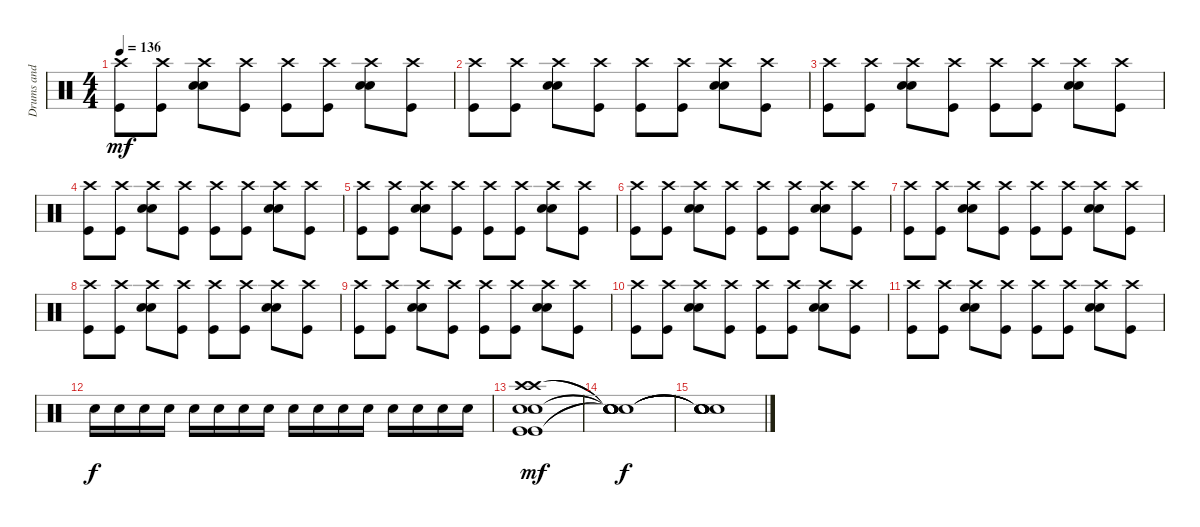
\track ("Drums and Percussions" "Drums and ") {instrument percussion}
\staff {score}
\articulation defaults
\ts (4 4)
\tempo 136
\clef neutral
\ks c
("Crash high (hit)" "Kick (hit)").8{dy mf} ("Crash high (hit)" "Kick (hit)").8 ("Crash high (hit)" "Electric Snare (hit)" "Electric Snare (hit)").8 ("Crash high (hit)" "Kick (hit)").8 ("Crash high (hit)" "Kick (hit)").8 ("Crash high (hit)" "Kick (hit)").8 ("Crash high (hit)" "Electric Snare (hit)" "Electric Snare (hit)").8 ("Crash high (hit)" "Kick (hit)").8 |
("Crash high (hit)" "Kick (hit)").8 ("Crash high (hit)" "Kick (hit)").8 ("Crash high (hit)" "Electric Snare (hit)" "Electric Snare (hit)").8 ("Crash high (hit)" "Kick (hit)").8 ("Crash high (hit)" "Kick (hit)").8 ("Crash high (hit)" "Kick (hit)").8 ("Crash high (hit)" "Electric Snare (hit)" "Electric Snare (hit)").8 ("Crash high (hit)" "Kick (hit)").8 |
("Crash high (hit)" "Kick (hit)").8 ("Crash high (hit)" "Kick (hit)").8 ("Crash high (hit)" "Electric Snare (hit)" "Electric Snare (hit)").8 ("Crash high (hit)" "Kick (hit)").8 ("Crash high (hit)" "Kick (hit)").8 ("Crash high (hit)" "Kick (hit)").8 ("Crash high (hit)" "Electric Snare (hit)" "Electric Snare (hit)").8 ("Crash high (hit)" "Kick (hit)").8 |
("Crash high (hit)" "Kick (hit)").8 ("Crash high (hit)" "Kick (hit)").8 ("Crash high (hit)" "Electric Snare (hit)" "Electric Snare (hit)").8 ("Crash high (hit)" "Kick (hit)").8 ("Crash high (hit)" "Kick (hit)").8 ("Crash high (hit)" "Kick (hit)").8 ("Crash high (hit)" "Electric Snare (hit)" "Electric Snare (hit)").8 ("Crash high (hit)" "Kick (hit)").8 |
("Crash high (hit)" "Kick (hit)").8 ("Crash high (hit)" "Kick (hit)").8 ("Crash high (hit)" "Electric Snare (hit)" "Electric Snare (hit)").8 ("Crash high (hit)" "Kick (hit)").8 ("Crash high (hit)" "Kick (hit)").8 ("Crash high (hit)" "Kick (hit)").8 ("Crash high (hit)" "Electric Snare (hit)" "Electric Snare (hit)").8 ("Crash high (hit)" "Kick (hit)").8 |
("Crash high (hit)" "Kick (hit)").8 ("Crash high (hit)" "Kick (hit)").8 ("Crash high (hit)" "Electric Snare (hit)" "Electric Snare (hit)").8 ("Crash high (hit)" "Kick (hit)").8 ("Crash high (hit)" "Kick (hit)").8 ("Crash high (hit)" "Kick (hit)").8 ("Crash high (hit)" "Electric Snare (hit)" "Electric Snare (hit)").8 ("Crash high (hit)" "Kick (hit)").8 |
("Crash high (hit)" "Kick (hit)").8 ("Crash high (hit)" "Kick (hit)").8 ("Crash high (hit)" "Electric Snare (hit)" "Electric Snare (hit)").8 ("Crash high (hit)" "Kick (hit)").8 ("Crash high (hit)" "Kick (hit)").8 ("Crash high (hit)" "Kick (hit)").8 ("Crash high (hit)" "Electric Snare (hit)" "Electric Snare (hit)").8 ("Crash high (hit)" "Kick (hit)").8 |
("Crash high (hit)" "Kick (hit)").8 ("Crash high (hit)" "Kick (hit)").8 ("Crash high (hit)" "Electric Snare (hit)" "Electric Snare (hit)").8 ("Crash high (hit)" "Kick (hit)").8 ("Crash high (hit)" "Kick (hit)").8 ("Crash high (hit)" "Kick (hit)").8 ("Crash high (hit)" "Electric Snare (hit)" "Electric Snare (hit)").8 ("Crash high (hit)" "Kick (hit)").8 |
("Crash high (hit)" "Kick (hit)").8 ("Crash high (hit)" "Kick (hit)").8 ("Crash high (hit)" "Electric Snare (hit)" "Electric Snare (hit)").8 ("Crash high (hit)" "Kick (hit)").8 ("Crash high (hit)" "Kick (hit)").8 ("Crash high (hit)" "Kick (hit)").8 ("Crash high (hit)" "Electric Snare (hit)" "Electric Snare (hit)").8 ("Crash high (hit)" "Kick (hit)").8 |
("Crash high (hit)" "Kick (hit)").8 ("Crash high (hit)" "Kick (hit)").8 ("Crash high (hit)" "Electric Snare (hit)" "Electric Snare (hit)").8 ("Crash high (hit)" "Kick (hit)").8 ("Crash high (hit)" "Kick (hit)").8 ("Crash high (hit)" "Kick (hit)").8 ("Crash high (hit)" "Electric Snare (hit)" "Electric Snare (hit)").8 ("Crash high (hit)" "Kick (hit)").8 |
("Crash high (hit)" "Kick (hit)").8 ("Crash high (hit)" "Kick (hit)").8 ("Crash high (hit)" "Electric Snare (hit)" "Electric Snare (hit)").8 ("Crash high (hit)" "Kick (hit)").8 ("Crash high (hit)" "Kick (hit)").8 ("Crash high (hit)" "Kick (hit)").8 ("Crash high (hit)" "Electric Snare (hit)" "Electric Snare (hit)").8 ("Crash high (hit)" "Kick (hit)").8 |
"Electric Snare (hit)".16{dy f} "Electric Snare (hit)".16 "Electric Snare (hit)".16 "Electric Snare (hit)".16 "Electric Snare (hit)".16 "Electric Snare (hit)".16 "Electric Snare (hit)".16 "Electric Snare (hit)".16 "Electric Snare (hit)".16 "Electric Snare (hit)".16 "Electric Snare (hit)".16 "Electric Snare (hit)".16 "Electric Snare (hit)".16 "Electric Snare (hit)".16 "Electric Snare (hit)".16 "Electric Snare (hit)".16 |
("Crash high (hit)" "Crash high (hit)" "Electric Snare (hit)" "Electric Snare (hit)" "Kick (hit)" "Kick (hit)").1{dy mf} |
("Snare (hit)"{t} "Snare (hit)"{t} "Snare (hit)"{t} "Snare (hit)"{t} "Snare (hit)"{t} "Snare (hit)"{t}).1{dy f} |
("Snare (hit)"{t} "Snare (hit)"{t} "Snare (hit)"{t} "Snare (hit)"{t} "Snare (hit)"{t} "Snare (hit)"{t}).1
